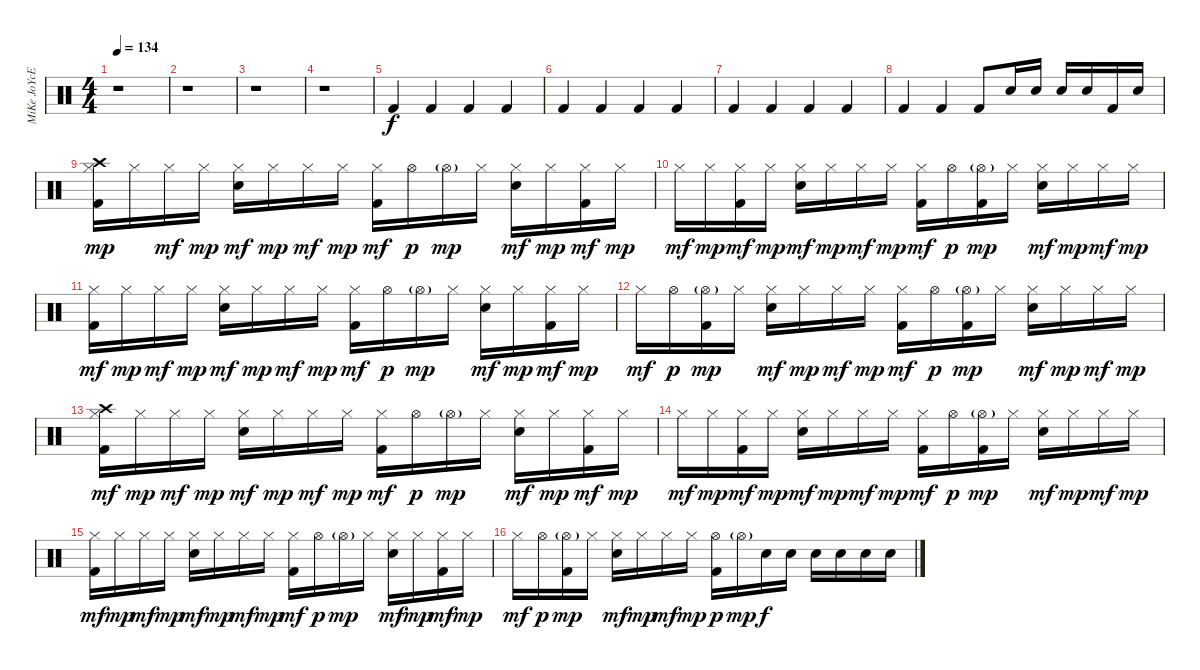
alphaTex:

\track ("MiKe JoYcE" "MiKe JoYcE") {instrument percussion}
\staff {score}
\articulation defaults
\ts (4 4)
\tempo 134
\clef neutral
\ks c
r.1{dy f} |
r.1 |
r.1 |
r.1 |
"Kick (hit) 2".4 "Kick (hit) 2".4 "Kick (hit) 2".4 "Kick (hit) 2".4 |
"Kick (hit) 2".4 "Kick (hit) 2".4 "Kick (hit) 2".4 "Kick (hit) 2".4 |
"Kick (hit) 2".4 "Kick (hit) 2".4 "Kick (hit) 2".4 "Kick (hit) 2".4 |
"Kick (hit) 2".4 "Kick (hit) 2".4 "Kick (hit) 2".8 "Electric Snare (hit)".16 "Electric Snare (hit)".16 "Electric Snare (hit)".16 "Electric Snare (hit)".16 "Kick (hit) 2".16 "Electric Snare (hit)".16 |
("Hi-Hat (closed)" "Crash high (hit)" "Kick (hit) 2").16{dy mp} "Hi-Hat (closed)".16 "Hi-Hat (closed)".16{dy mf} "Hi-Hat (closed)".16{dy mp} ("Hi-Hat (closed)" "Electric Snare (hit)").16{dy mf} "Hi-Hat (closed)".16{dy mp} "Hi-Hat (closed)".16{dy mf} "Hi-Hat (closed)".16{dy mp} ("Hi-Hat (closed)" "Kick (hit) 2").16{dy mf} "Hi-Hat (open)".16{dy p} "Hi-Hat (open)"{g}.16{dy mp} "Hi-Hat (closed)".16 ("Hi-Hat (closed)" "Electric Snare (hit)").16{dy mf} "Hi-Hat (closed)".16{dy mp} ("Hi-Hat (closed)" "Kick (hit) 2").16{dy mf} "Hi-Hat (closed)".16{dy mp} |
"Hi-Hat (closed)".16{dy mf} "Hi-Hat (closed)".16{dy mp} ("Hi-Hat (closed)" "Kick (hit) 2").16{dy mf} "Hi-Hat (closed)".16{dy mp} ("Hi-Hat (closed)" "Electric Snare (hit)").16{dy mf} "Hi-Hat (closed)".16{dy mp} "Hi-Hat (closed)".16{dy mf} "Hi-Hat (closed)".16{dy mp} ("Hi-Hat (closed)" "Kick (hit) 2").16{dy mf} "Hi-Hat (open)".16{dy p} ("Hi-Hat (open)"{g} "Kick (hit) 2").16{dy mp} "Hi-Hat (closed)".16 ("Hi-Hat (closed)" "Electric Snare (hit)").16{dy mf} "Hi-Hat (closed)".16{dy mp} "Hi-Hat (closed)".16{dy mf} "Hi-Hat (closed)".16{dy mp} |
("Hi-Hat (closed)" "Kick (hit) 2").16{dy mf} "Hi-Hat (closed)".16{dy mp} "Hi-Hat (closed)".16{dy mf} "Hi-Hat (closed)".16{dy mp} ("Hi-Hat (closed)" "Electric Snare (hit)").16{dy mf} "Hi-Hat (closed)".16{dy mp} "Hi-Hat (closed)".16{dy mf} "Hi-Hat (closed)".16{dy mp} ("Hi-Hat (closed)" "Kick (hit) 2").16{dy mf} "Hi-Hat (open)".16{dy p} "Hi-Hat (open)"{g}.16{dy mp} "Hi-Hat (closed)".16 ("Hi-Hat (closed)" "Electric Snare (hit)").16{dy mf} "Hi-Hat (closed)".16{dy mp} ("Hi-Hat (closed)" "Kick (hit) 2").16{dy mf} "Hi-Hat (closed)".16{dy mp} |
"Hi-Hat (closed)".16{dy mf} "Hi-Hat (open)".16{dy p} ("Hi-Hat (open)"{g} "Kick (hit) 2").16{dy mp} "Hi-Hat (closed)".16 ("Hi-Hat (closed)" "Electric Snare (hit)").16{dy mf} "Hi-Hat (closed)".16{dy mp} "Hi-Hat (closed)".16{dy mf} "Hi-Hat (closed)".16{dy mp} ("Hi-Hat (closed)" "Kick (hit) 2").16{dy mf} "Hi-Hat (open)".16{dy p} ("Hi-Hat (open)"{g} "Kick (hit) 2").16{dy mp} "Hi-Hat (closed)".16 ("Hi-Hat (closed)" "Electric Snare (hit)").16{dy mf} "Hi-Hat (closed)".16{dy mp} "Hi-Hat (closed)".16{dy mf} "Hi-Hat (closed)".16{dy mp} |
("Hi-Hat (closed)" "Crash high (hit)" "Kick (hit) 2").16{dy mf} "Hi-Hat (closed)".16{dy mp} "Hi-Hat (closed)".16{dy mf} "Hi-Hat (closed)".16{dy mp} ("Hi-Hat (closed)" "Electric Snare (hit)").16{dy mf} "Hi-Hat (closed)".16{dy mp} "Hi-Hat (closed)".16{dy mf} "Hi-Hat (closed)".16{dy mp} ("Hi-Hat (closed)" "Kick (hit) 2").16{dy mf} "Hi-Hat (open)".16{dy p} "Hi-Hat (open)"{g}.16{dy mp} "Hi-Hat (closed)".16 ("Hi-Hat (closed)" "Electric Snare (hit)").16{dy mf} "Hi-Hat (closed)".16{dy mp} ("Hi-Hat (closed)" "Kick (hit) 2").16{dy mf} "Hi-Hat (closed)".16{dy mp} |
"Hi-Hat (closed)".16{dy mf} "Hi-Hat (closed)".16{dy mp} ("Hi-Hat (closed)" "Kick (hit) 2").16{dy mf} "Hi-Hat (closed)".16{dy mp} ("Hi-Hat (closed)" "Electric Snare (hit)").16{dy mf} "Hi-Hat (closed)".16{dy mp} "Hi-Hat (closed)".16{dy mf} "Hi-Hat (closed)".16{dy mp} ("Hi-Hat (closed)" "Kick (hit) 2").16{dy mf} "Hi-Hat (open)".16{dy p} ("Hi-Hat (open)"{g} "Kick (hit) 2").16{dy mp} "Hi-Hat (closed)".16 ("Hi-Hat (closed)" "Electric Snare (hit)").16{dy mf} "Hi-Hat (closed)".16{dy mp} "Hi-Hat (closed)".16{dy mf} "Hi-Hat (closed)".16{dy mp} |
("Hi-Hat (closed)" "Kick (hit) 2").16{dy mf} "Hi-Hat (closed)".16{dy mp} "Hi-Hat (closed)".16{dy mf} "Hi-Hat (closed)".16{dy mp} ("Hi-Hat (closed)" "Electric Snare (hit)").16{dy mf} "Hi-Hat (closed)".16{dy mp} "Hi-Hat (closed)".16{dy mf} "Hi-Hat (closed)".16{dy mp} ("Hi-Hat (closed)" "Kick (hit) 2").16{dy mf} "Hi-Hat (open)".16{dy p} "Hi-Hat (open)"{g}.16{dy mp} "Hi-Hat (closed)".16 ("Hi-Hat (closed)" "Electric Snare (hit)").16{dy mf} "Hi-Hat (closed)".16{dy mp} ("Hi-Hat (closed)" "Kick (hit) 2").16{dy mf} "Hi-Hat (closed)".16{dy mp} |
"Hi-Hat (closed)".16{dy mf} "Hi-Hat (open)".16{dy p} ("Hi-Hat (open)"{g} "Kick (hit) 2").16{dy mp} "Hi-Hat (closed)".16 ("Hi-Hat (closed)" "Electric Snare (hit)").16{dy mf} "Hi-Hat (closed)".16{dy mp} "Hi-Hat (closed)".16{dy mf} "Hi-Hat (closed)".16{dy mp} ("Hi-Hat (open)" "Kick (hit) 2").16{dy p} "Hi-Hat (open)"{g}.16{dy mp} "Electric Snare (hit)".16{dy f} "Electric Snare (hit)".16 "Electric Snare (hit)".16 "Electric Snare (hit)".16 "Electric Snare (hit)".16 "Electric Snare (hit)".16
